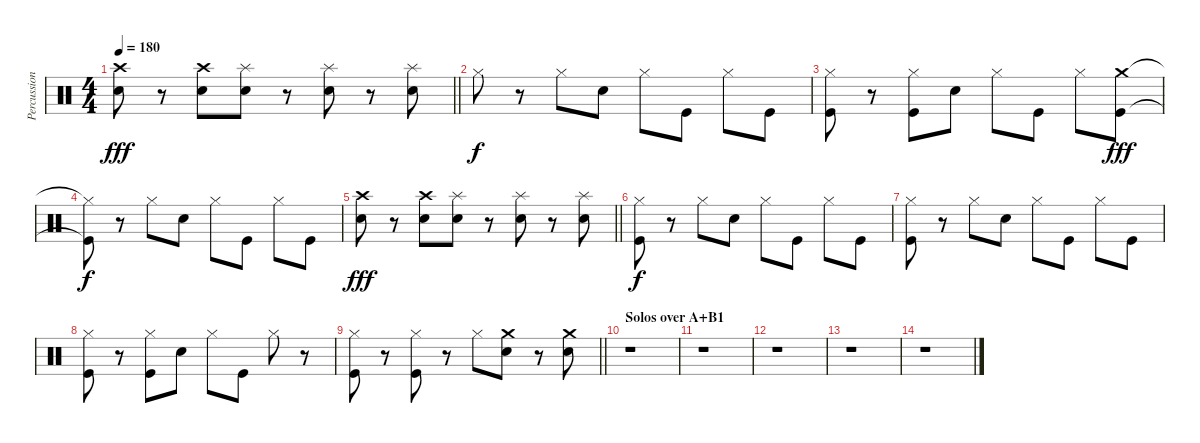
\track ("Percussion" "Percussion") {instrument percussion}
\staff {score}
\articulation defaults
\ts (4 4)
\tempo 180
\clef neutral
\barLineRight lightlight
\ks c
("Crash high (hit)" "Electric Snare (hit)").8{dy fff} r.8 ("Crash high (hit)" "Electric Snare (hit)").8 ("Splash (hit)" "Electric Snare (hit)").8 r.8 ("Splash (hit)" "Electric Snare (hit)").8 r.8 ("Splash (hit)" "Electric Snare (hit)").8 |
"Hi-Hat (closed)".8{dy f} r.8 "Hi-Hat (closed)".8 "Electric Snare (hit)".8 "Hi-Hat (closed)".8 "Kick (hit)".8 "Hi-Hat (closed)".8 "Kick (hit)".8 |
("Hi-Hat (closed)" "Kick (hit)").8 r.8 ("Hi-Hat (closed)" "Kick (hit)").8 "Electric Snare (hit)".8 "Hi-Hat (closed)".8 "Kick (hit)".8 "Hi-Hat (closed)".8 ("Crash medium (hit)" "Kick (hit)").8{dy fff} |
("Hi-Hat (closed)"{t} "Kick (hit)"{t}).8{dy f} r.8 "Hi-Hat (closed)".8 "Electric Snare (hit)".8 "Hi-Hat (closed)".8 "Kick (hit)".8 "Hi-Hat (closed)".8 "Kick (hit)".8 |
\barLineRight lightlight
("Crash high (hit)" "Electric Snare (hit)").8{dy fff} r.8 ("Crash high (hit)" "Electric Snare (hit)").8 ("Splash (hit)" "Electric Snare (hit)").8 r.8 ("Splash (hit)" "Electric Snare (hit)").8 r.8 ("Splash (hit)" "Electric Snare (hit)").8 |
("Hi-Hat (closed)" "Kick (hit)").8{dy f} r.8 "Hi-Hat (closed)".8 "Electric Snare (hit)".8 "Hi-Hat (closed)".8 "Kick (hit)".8 "Hi-Hat (closed)".8 "Kick (hit)".8 |
("Hi-Hat (closed)" "Kick (hit)").8 r.8 "Hi-Hat (closed)".8 "Electric Snare (hit)".8 "Hi-Hat (closed)".8 "Kick (hit)".8 "Hi-Hat (closed)".8 "Kick (hit)".8 |
("Hi-Hat (closed)" "Kick (hit)").8 r.8 ("Hi-Hat (closed)" "Kick (hit)").8 "Electric Snare (hit)".8 "Hi-Hat (closed)".8 "Kick (hit)".8 "Hi-Hat (closed)".8 r.8 |
\barLineRight lightlight
("Hi-Hat (closed)" "Kick (hit)").8 r.8 ("Hi-Hat (closed)" "Kick (hit)").8 r.8 "Hi-Hat (closed)".8 ("Crash medium (hit)" "Electric Snare (hit)").8 r.8 ("Crash medium (hit)" "Electric Snare (hit)").8 |
\section ("" "Solos over A+B1")
r.1 |
r.1 |
r.1 |
r.1 |
r.1
